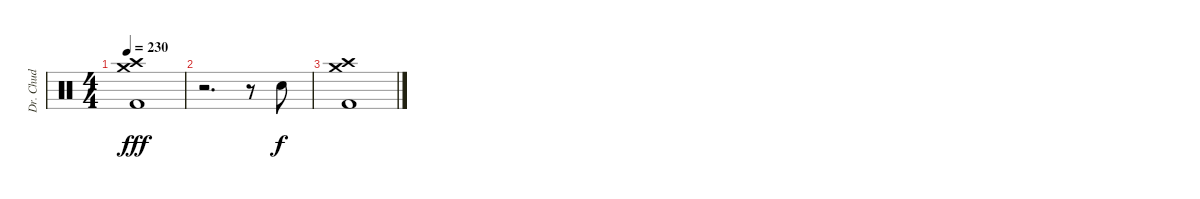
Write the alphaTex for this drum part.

\track ("Dr. Chud" "Dr. Chud") {instrument percussion}
\staff {score}
\articulation defaults
\ts (4 4)
\tempo 230
\clef neutral
\ks c
("Crash high (hit)" "Crash medium (hit)" "Kick (hit) 2").1{dy fff} |
r.2{d} r.8 "Snare (hit) 2".8{dy f} |
("Crash high (hit)" "Crash medium (hit)" "Kick (hit) 2").1
